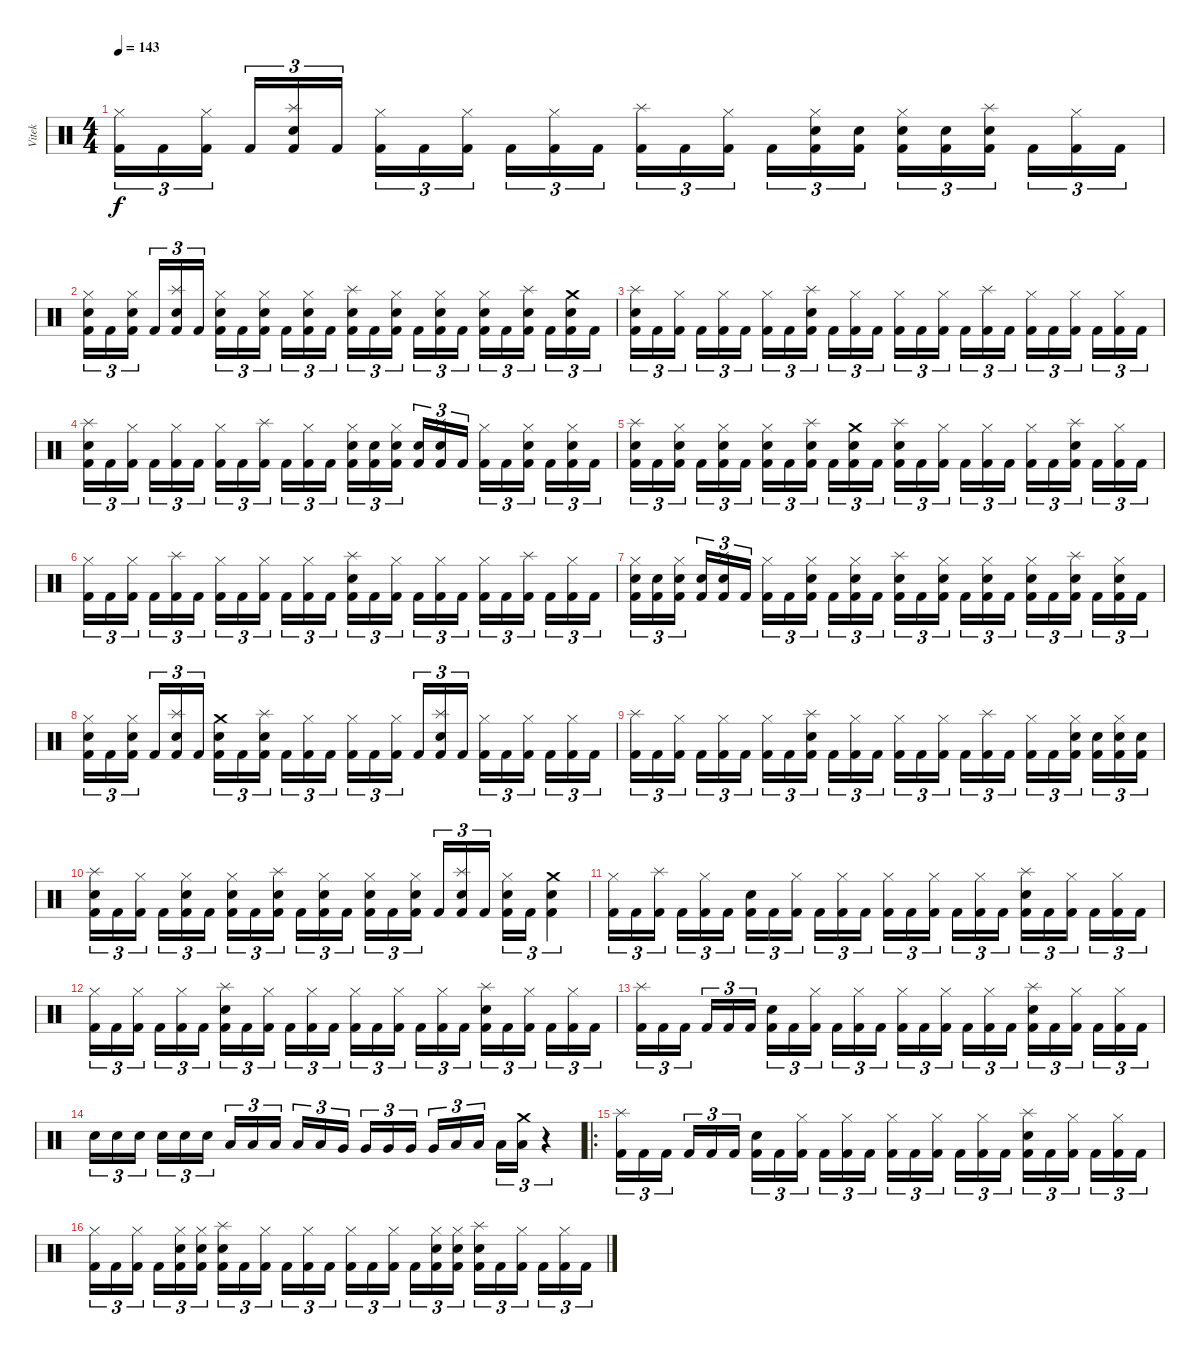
\track ("Vitek" "Vitek") {instrument percussion}
\staff {score}
\articulation defaults
\ts (4 4)
\tempo 143
\clef neutral
\ks c
("Hi-Hat (closed)" "Kick (hit) 2").16{tu (3 2) dy f} "Kick (hit) 2".16{tu (3 2)} ("Hi-Hat (closed)" "Kick (hit) 2").16{tu (3 2) beam splitsecondary} "Kick (hit) 2".16{tu (3 2)} ("Splash (hit)" "Electric Snare (hit)" "Kick (hit) 2").16{tu (3 2)} "Kick (hit) 2".16{tu (3 2)} ("Hi-Hat (closed)" "Kick (hit) 2").16{tu (3 2)} "Kick (hit) 2".16{tu (3 2)} ("Hi-Hat (closed)" "Kick (hit) 2").16{tu (3 2) beam splitsecondary} "Kick (hit) 2".16{tu (3 2)} ("Hi-Hat (closed)" "Kick (hit) 2").16{tu (3 2)} "Kick (hit) 2".16{tu (3 2)} ("Splash (hit)" "Kick (hit) 2").16{tu (3 2)} "Kick (hit) 2".16{tu (3 2)} ("Hi-Hat (closed)" "Kick (hit) 2").16{tu (3 2) beam splitsecondary} "Kick (hit) 2".16{tu (3 2)} ("Hi-Hat (closed)" "Electric Snare (hit)" "Kick (hit) 2").16{tu (3 2)} ("Electric Snare (hit)" "Kick (hit) 2").16{tu (3 2)} ("Hi-Hat (closed)" "Electric Snare (hit)" "Kick (hit) 2").16{tu (3 2)} ("Electric Snare (hit)" "Kick (hit) 2").16{tu (3 2)} ("Splash (hit)" "Electric Snare (hit)" "Kick (hit) 2").16{tu (3 2) beam splitsecondary} "Kick (hit) 2".16{tu (3 2)} ("Hi-Hat (closed)" "Kick (hit) 2").16{tu (3 2)} "Kick (hit) 2".16{tu (3 2)} |
("Hi-Hat (closed)" "Electric Snare (hit)" "Kick (hit) 2").16{tu (3 2)} "Kick (hit) 2".16{tu (3 2)} ("Hi-Hat (closed)" "Electric Snare (hit)" "Kick (hit) 2").16{tu (3 2) beam splitsecondary} "Kick (hit) 2".16{tu (3 2)} ("Splash (hit)" "Electric Snare (hit)" "Kick (hit) 2").16{tu (3 2)} "Kick (hit) 2".16{tu (3 2)} ("Hi-Hat (closed)" "Electric Snare (hit)" "Kick (hit) 2").16{tu (3 2)} "Kick (hit) 2".16{tu (3 2)} ("Hi-Hat (closed)" "Electric Snare (hit)" "Kick (hit) 2").16{tu (3 2) beam splitsecondary} "Kick (hit) 2".16{tu (3 2)} ("Hi-Hat (closed)" "Electric Snare (hit)" "Kick (hit) 2").16{tu (3 2)} "Kick (hit) 2".16{tu (3 2)} ("Splash (hit)" "Electric Snare (hit)" "Kick (hit) 2").16{tu (3 2)} "Kick (hit) 2".16{tu (3 2)} ("Hi-Hat (closed)" "Electric Snare (hit)" "Kick (hit) 2").16{tu (3 2) beam splitsecondary} "Kick (hit) 2".16{tu (3 2)} ("Hi-Hat (closed)" "Electric Snare (hit)" "Kick (hit) 2").16{tu (3 2)} "Kick (hit) 2".16{tu (3 2)} ("Hi-Hat (closed)" "Electric Snare (hit)" "Kick (hit) 2").16{tu (3 2)} "Kick (hit) 2".16{tu (3 2)} ("Splash (hit)" "Electric Snare (hit)" "Kick (hit) 2").16{tu (3 2) beam splitsecondary} "Kick (hit) 2".16{tu (3 2)} ("Crash medium (hit)" "Electric Snare (hit)" "Kick (hit) 2").16{tu (3 2)} "Kick (hit) 2".16{tu (3 2)} |
("Splash (hit)" "Electric Snare (hit)" "Kick (hit) 2").16{tu (3 2)} "Kick (hit) 2".16{tu (3 2)} ("Hi-Hat (closed)" "Kick (hit) 2").16{tu (3 2) beam splitsecondary} "Kick (hit) 2".16{tu (3 2)} ("Hi-Hat (closed)" "Kick (hit) 2").16{tu (3 2)} "Kick (hit) 2".16{tu (3 2)} ("Hi-Hat (closed)" "Kick (hit) 2").16{tu (3 2)} "Kick (hit) 2".16{tu (3 2)} ("Splash (hit)" "Electric Snare (hit)" "Kick (hit) 2").16{tu (3 2) beam splitsecondary} "Kick (hit) 2".16{tu (3 2)} ("Hi-Hat (closed)" "Kick (hit) 2").16{tu (3 2)} "Kick (hit) 2".16{tu (3 2)} ("Hi-Hat (closed)" "Kick (hit) 2").16{tu (3 2)} "Kick (hit) 2".16{tu (3 2)} ("Hi-Hat (closed)" "Kick (hit) 2").16{tu (3 2) beam splitsecondary} "Kick (hit) 2".16{tu (3 2)} ("Splash (hit)" "Kick (hit) 2").16{tu (3 2)} "Kick (hit) 2".16{tu (3 2)} ("Hi-Hat (closed)" "Kick (hit) 2").16{tu (3 2)} "Kick (hit) 2".16{tu (3 2)} ("Hi-Hat (closed)" "Kick (hit) 2").16{tu (3 2) beam splitsecondary} "Kick (hit) 2".16{tu (3 2)} ("Hi-Hat (closed)" "Kick (hit) 2").16{tu (3 2)} "Kick (hit) 2".16{tu (3 2)} |
("Splash (hit)" "Electric Snare (hit)" "Kick (hit) 2").16{tu (3 2)} "Kick (hit) 2".16{tu (3 2)} ("Hi-Hat (closed)" "Kick (hit) 2").16{tu (3 2) beam splitsecondary} "Kick (hit) 2".16{tu (3 2)} ("Hi-Hat (closed)" "Kick (hit) 2").16{tu (3 2)} "Kick (hit) 2".16{tu (3 2)} ("Hi-Hat (closed)" "Kick (hit) 2").16{tu (3 2)} "Kick (hit) 2".16{tu (3 2)} ("Splash (hit)" "Kick (hit) 2").16{tu (3 2) beam splitsecondary} "Kick (hit) 2".16{tu (3 2)} ("Hi-Hat (closed)" "Kick (hit) 2").16{tu (3 2)} "Kick (hit) 2".16{tu (3 2)} ("Hi-Hat (closed)" "Electric Snare (hit)" "Kick (hit) 2").16{tu (3 2)} ("Electric Snare (hit)" "Kick (hit) 2").16{tu (3 2)} ("Hi-Hat (closed)" "Electric Snare (hit)" "Kick (hit) 2").16{tu (3 2) beam splitsecondary} ("Electric Snare (hit)" "Kick (hit) 2").16{tu (3 2)} ("Splash (hit)" "Electric Snare (hit)" "Kick (hit) 2").16{tu (3 2)} "Kick (hit) 2".16{tu (3 2)} ("Hi-Hat (closed)" "Kick (hit) 2").16{tu (3 2)} "Kick (hit) 2".16{tu (3 2)} ("Hi-Hat (closed)" "Electric Snare (hit)" "Kick (hit) 2").16{tu (3 2) beam splitsecondary} "Kick (hit) 2".16{tu (3 2)} ("Hi-Hat (closed)" "Electric Snare (hit)" "Kick (hit) 2").16{tu (3 2)} "Kick (hit) 2".16{tu (3 2)} |
("Splash (hit)" "Electric Snare (hit)" "Kick (hit) 2").16{tu (3 2)} "Kick (hit) 2".16{tu (3 2)} ("Hi-Hat (closed)" "Electric Snare (hit)" "Kick (hit) 2").16{tu (3 2) beam splitsecondary} "Kick (hit) 2".16{tu (3 2)} ("Hi-Hat (closed)" "Electric Snare (hit)" "Kick (hit) 2").16{tu (3 2)} "Kick (hit) 2".16{tu (3 2)} ("Hi-Hat (closed)" "Electric Snare (hit)" "Kick (hit) 2").16{tu (3 2)} "Kick (hit) 2".16{tu (3 2)} ("Splash (hit)" "Electric Snare (hit)" "Kick (hit) 2").16{tu (3 2) beam splitsecondary} "Kick (hit) 2".16{tu (3 2)} ("Crash medium (hit)" "Electric Snare (hit)" "Kick (hit) 2").16{tu (3 2)} "Kick (hit) 2".16{tu (3 2)} ("Splash (hit)" "Electric Snare (hit)" "Kick (hit) 2").16{tu (3 2)} "Kick (hit) 2".16{tu (3 2)} ("Hi-Hat (closed)" "Kick (hit) 2").16{tu (3 2) beam splitsecondary} "Kick (hit) 2".16{tu (3 2)} ("Hi-Hat (closed)" "Kick (hit) 2").16{tu (3 2)} "Kick (hit) 2".16{tu (3 2)} ("Hi-Hat (closed)" "Kick (hit) 2").16{tu (3 2)} "Kick (hit) 2".16{tu (3 2)} ("Splash (hit)" "Electric Snare (hit)" "Kick (hit) 2").16{tu (3 2) beam splitsecondary} "Kick (hit) 2".16{tu (3 2)} ("Hi-Hat (closed)" "Kick (hit) 2").16{tu (3 2)} "Kick (hit) 2".16{tu (3 2)} |
("Hi-Hat (closed)" "Kick (hit) 2").16{tu (3 2)} "Kick (hit) 2".16{tu (3 2)} ("Hi-Hat (closed)" "Kick (hit) 2").16{tu (3 2) beam splitsecondary} "Kick (hit) 2".16{tu (3 2)} ("Splash (hit)" "Kick (hit) 2").16{tu (3 2)} "Kick (hit) 2".16{tu (3 2)} ("Hi-Hat (closed)" "Kick (hit) 2").16{tu (3 2)} "Kick (hit) 2".16{tu (3 2)} ("Hi-Hat (closed)" "Kick (hit) 2").16{tu (3 2) beam splitsecondary} "Kick (hit) 2".16{tu (3 2)} ("Hi-Hat (closed)" "Kick (hit) 2").16{tu (3 2)} "Kick (hit) 2".16{tu (3 2)} ("Splash (hit)" "Electric Snare (hit)" "Kick (hit) 2").16{tu (3 2)} "Kick (hit) 2".16{tu (3 2)} ("Hi-Hat (closed)" "Kick (hit) 2").16{tu (3 2) beam splitsecondary} "Kick (hit) 2".16{tu (3 2)} ("Hi-Hat (closed)" "Kick (hit) 2").16{tu (3 2)} "Kick (hit) 2".16{tu (3 2)} ("Hi-Hat (closed)" "Kick (hit) 2").16{tu (3 2)} "Kick (hit) 2".16{tu (3 2)} ("Splash (hit)" "Kick (hit) 2").16{tu (3 2) beam splitsecondary} "Kick (hit) 2".16{tu (3 2)} ("Hi-Hat (closed)" "Kick (hit) 2").16{tu (3 2)} "Kick (hit) 2".16{tu (3 2)} |
("Hi-Hat (closed)" "Electric Snare (hit)" "Kick (hit) 2").16{tu (3 2)} ("Electric Snare (hit)" "Kick (hit) 2").16{tu (3 2)} ("Hi-Hat (closed)" "Electric Snare (hit)" "Kick (hit) 2").16{tu (3 2) beam splitsecondary} ("Electric Snare (hit)" "Kick (hit) 2").16{tu (3 2)} ("Splash (hit)" "Electric Snare (hit)" "Kick (hit) 2").16{tu (3 2)} "Kick (hit) 2".16{tu (3 2)} ("Hi-Hat (closed)" "Kick (hit) 2").16{tu (3 2)} "Kick (hit) 2".16{tu (3 2)} ("Hi-Hat (closed)" "Electric Snare (hit)" "Kick (hit) 2").16{tu (3 2) beam splitsecondary} "Kick (hit) 2".16{tu (3 2)} ("Hi-Hat (closed)" "Electric Snare (hit)" "Kick (hit) 2").16{tu (3 2)} "Kick (hit) 2".16{tu (3 2)} ("Splash (hit)" "Electric Snare (hit)" "Kick (hit) 2").16{tu (3 2)} "Kick (hit) 2".16{tu (3 2)} ("Hi-Hat (closed)" "Electric Snare (hit)" "Kick (hit) 2").16{tu (3 2) beam splitsecondary} "Kick (hit) 2".16{tu (3 2)} ("Hi-Hat (closed)" "Electric Snare (hit)" "Kick (hit) 2").16{tu (3 2)} "Kick (hit) 2".16{tu (3 2)} ("Hi-Hat (closed)" "Electric Snare (hit)" "Kick (hit) 2").16{tu (3 2)} "Kick (hit) 2".16{tu (3 2)} ("Splash (hit)" "Electric Snare (hit)" "Kick (hit) 2").16{tu (3 2) beam splitsecondary} "Kick (hit) 2".16{tu (3 2)} ("Hi-Hat (closed)" "Electric Snare (hit)" "Kick (hit) 2").16{tu (3 2)} "Kick (hit) 2".16{tu (3 2)} |
("Hi-Hat (closed)" "Electric Snare (hit)" "Kick (hit) 2").16{tu (3 2)} "Kick (hit) 2".16{tu (3 2)} ("Hi-Hat (closed)" "Electric Snare (hit)" "Kick (hit) 2").16{tu (3 2) beam splitsecondary} "Kick (hit) 2".16{tu (3 2)} ("Splash (hit)" "Electric Snare (hit)" "Kick (hit) 2").16{tu (3 2)} "Kick (hit) 2".16{tu (3 2)} ("Crash medium (hit)" "Electric Snare (hit)" "Kick (hit) 2").16{tu (3 2)} "Kick (hit) 2".16{tu (3 2)} ("Splash (hit)" "Electric Snare (hit)" "Kick (hit) 2").16{tu (3 2) beam splitsecondary} "Kick (hit) 2".16{tu (3 2)} ("Hi-Hat (closed)" "Kick (hit) 2").16{tu (3 2)} "Kick (hit) 2".16{tu (3 2)} ("Hi-Hat (closed)" "Kick (hit) 2").16{tu (3 2)} "Kick (hit) 2".16{tu (3 2)} ("Hi-Hat (closed)" "Kick (hit) 2").16{tu (3 2) beam splitsecondary} "Kick (hit) 2".16{tu (3 2)} ("Splash (hit)" "Electric Snare (hit)" "Kick (hit) 2").16{tu (3 2)} "Kick (hit) 2".16{tu (3 2)} ("Hi-Hat (closed)" "Kick (hit) 2").16{tu (3 2)} "Kick (hit) 2".16{tu (3 2)} ("Hi-Hat (closed)" "Kick (hit) 2").16{tu (3 2) beam splitsecondary} "Kick (hit) 2".16{tu (3 2)} ("Hi-Hat (closed)" "Kick (hit) 2").16{tu (3 2)} "Kick (hit) 2".16{tu (3 2)} |
("Splash (hit)" "Kick (hit) 2").16{tu (3 2)} "Kick (hit) 2".16{tu (3 2)} ("Hi-Hat (closed)" "Kick (hit) 2").16{tu (3 2) beam splitsecondary} "Kick (hit) 2".16{tu (3 2)} ("Hi-Hat (closed)" "Kick (hit) 2").16{tu (3 2)} "Kick (hit) 2".16{tu (3 2)} ("Hi-Hat (closed)" "Kick (hit) 2").16{tu (3 2)} "Kick (hit) 2".16{tu (3 2)} ("Splash (hit)" "Electric Snare (hit)" "Kick (hit) 2").16{tu (3 2) beam splitsecondary} "Kick (hit) 2".16{tu (3 2)} ("Hi-Hat (closed)" "Kick (hit) 2").16{tu (3 2)} "Kick (hit) 2".16{tu (3 2)} ("Hi-Hat (closed)" "Kick (hit) 2").16{tu (3 2)} "Kick (hit) 2".16{tu (3 2)} ("Hi-Hat (closed)" "Kick (hit) 2").16{tu (3 2) beam splitsecondary} "Kick (hit) 2".16{tu (3 2)} ("Splash (hit)" "Kick (hit) 2").16{tu (3 2)} "Kick (hit) 2".16{tu (3 2)} ("Hi-Hat (closed)" "Kick (hit) 2").16{tu (3 2)} "Kick (hit) 2".16{tu (3 2)} ("Hi-Hat (closed)" "Electric Snare (hit)" "Kick (hit) 2").16{tu (3 2) beam splitsecondary} ("Electric Snare (hit)" "Kick (hit) 2").16{tu (3 2)} ("Hi-Hat (closed)" "Electric Snare (hit)" "Kick (hit) 2").16{tu (3 2)} ("Electric Snare (hit)" "Kick (hit) 2").16{tu (3 2)} |
("Splash (hit)" "Electric Snare (hit)" "Kick (hit) 2").16{tu (3 2)} "Kick (hit) 2".16{tu (3 2)} ("Hi-Hat (closed)" "Kick (hit) 2").16{tu (3 2) beam splitsecondary} "Kick (hit) 2".16{tu (3 2)} ("Hi-Hat (closed)" "Electric Snare (hit)" "Kick (hit) 2").16{tu (3 2)} "Kick (hit) 2".16{tu (3 2)} ("Hi-Hat (closed)" "Electric Snare (hit)" "Kick (hit) 2").16{tu (3 2)} "Kick (hit) 2".16{tu (3 2)} ("Splash (hit)" "Electric Snare (hit)" "Kick (hit) 2").16{tu (3 2) beam splitsecondary} "Kick (hit) 2".16{tu (3 2)} ("Hi-Hat (closed)" "Electric Snare (hit)" "Kick (hit) 2").16{tu (3 2)} "Kick (hit) 2".16{tu (3 2)} ("Hi-Hat (closed)" "Electric Snare (hit)" "Kick (hit) 2").16{tu (3 2)} "Kick (hit) 2".16{tu (3 2)} ("Hi-Hat (closed)" "Electric Snare (hit)" "Kick (hit) 2").16{tu (3 2) beam splitsecondary} "Kick (hit) 2".16{tu (3 2)} ("Splash (hit)" "Electric Snare (hit)" "Kick (hit) 2").16{tu (3 2)} "Kick (hit) 2".16{tu (3 2)} ("Hi-Hat (closed)" "Electric Snare (hit)" "Kick (hit) 2").16{tu (3 2)} "Kick (hit) 2".16{tu (3 2)} ("Crash medium (hit)" "Electric Snare (hit)" "Kick (hit) 2").4{tu (3 2)} |
("Hi-Hat (closed)" "Kick (hit) 2").16{tu (3 2)} "Kick (hit) 2".16{tu (3 2)} ("Splash (hit)" "Kick (hit) 2").16{tu (3 2) beam splitsecondary} "Kick (hit) 2".16{tu (3 2)} ("Hi-Hat (closed)" "Kick (hit) 2").16{tu (3 2)} "Kick (hit) 2".16{tu (3 2)} ("Electric Snare (hit)" "Kick (hit) 2").16{tu (3 2)} "Kick (hit) 2".16{tu (3 2)} ("Hi-Hat (closed)" "Kick (hit) 2").16{tu (3 2) beam splitsecondary} "Kick (hit) 2".16{tu (3 2)} ("Hi-Hat (closed)" "Kick (hit) 2").16{tu (3 2)} "Kick (hit) 2".16{tu (3 2)} ("Hi-Hat (closed)" "Kick (hit) 2").16{tu (3 2)} "Kick (hit) 2".16{tu (3 2)} ("Hi-Hat (closed)" "Kick (hit) 2").16{tu (3 2) beam splitsecondary} "Kick (hit) 2".16{tu (3 2)} ("Hi-Hat (closed)" "Kick (hit) 2").16{tu (3 2)} "Kick (hit) 2".16{tu (3 2)} ("Splash (hit)" "Electric Snare (hit)" "Kick (hit) 2").16{tu (3 2)} "Kick (hit) 2".16{tu (3 2)} ("Hi-Hat (closed)" "Kick (hit) 2").16{tu (3 2) beam splitsecondary} "Kick (hit) 2".16{tu (3 2)} ("Hi-Hat (closed)" "Kick (hit) 2").16{tu (3 2)} "Kick (hit) 2".16{tu (3 2)} |
("Hi-Hat (closed)" "Kick (hit) 2").16{tu (3 2)} "Kick (hit) 2".16{tu (3 2)} ("Hi-Hat (closed)" "Kick (hit) 2").16{tu (3 2) beam splitsecondary} "Kick (hit) 2".16{tu (3 2)} ("Hi-Hat (closed)" "Kick (hit) 2").16{tu (3 2)} "Kick (hit) 2".16{tu (3 2)} ("Splash (hit)" "Electric Snare (hit)" "Kick (hit) 2").16{tu (3 2)} "Kick (hit) 2".16{tu (3 2)} ("Hi-Hat (closed)" "Kick (hit) 2").16{tu (3 2) beam splitsecondary} "Kick (hit) 2".16{tu (3 2)} ("Hi-Hat (closed)" "Kick (hit) 2").16{tu (3 2)} "Kick (hit) 2".16{tu (3 2)} ("Hi-Hat (closed)" "Kick (hit) 2").16{tu (3 2)} "Kick (hit) 2".16{tu (3 2)} ("Hi-Hat (closed)" "Kick (hit) 2").16{tu (3 2) beam splitsecondary} "Kick (hit) 2".16{tu (3 2)} ("Hi-Hat (closed)" "Kick (hit) 2").16{tu (3 2)} "Kick (hit) 2".16{tu (3 2)} ("Splash (hit)" "Electric Snare (hit)" "Kick (hit) 2").16{tu (3 2)} "Kick (hit) 2".16{tu (3 2)} ("Hi-Hat (closed)" "Kick (hit) 2").16{tu (3 2) beam splitsecondary} "Kick (hit) 2".16{tu (3 2)} ("Hi-Hat (closed)" "Kick (hit) 2").16{tu (3 2)} "Kick (hit) 2".16{tu (3 2)} |
("Splash (hit)" "Kick (hit) 2").16{tu (3 2)} "Kick (hit) 2".16{tu (3 2)} "Kick (hit) 2".16{tu (3 2) beam splitsecondary} "Kick (hit) 2".16{tu (3 2)} "Kick (hit) 2".16{tu (3 2)} "Kick (hit) 2".16{tu (3 2)} ("Electric Snare (hit)" "Kick (hit) 2").16{tu (3 2)} "Kick (hit) 2".16{tu (3 2)} ("Hi-Hat (closed)" "Kick (hit) 2").16{tu (3 2) beam splitsecondary} "Kick (hit) 2".16{tu (3 2)} ("Hi-Hat (closed)" "Kick (hit) 2").16{tu (3 2)} "Kick (hit) 2".16{tu (3 2)} ("Hi-Hat (closed)" "Kick (hit) 2").16{tu (3 2)} "Kick (hit) 2".16{tu (3 2)} ("Hi-Hat (closed)" "Kick (hit) 2").16{tu (3 2) beam splitsecondary} "Kick (hit) 2".16{tu (3 2)} ("Hi-Hat (closed)" "Kick (hit) 2").16{tu (3 2)} "Kick (hit) 2".16{tu (3 2)} ("Splash (hit)" "Electric Snare (hit)" "Kick (hit) 2").16{tu (3 2)} "Kick (hit) 2".16{tu (3 2)} ("Hi-Hat (closed)" "Kick (hit) 2").16{tu (3 2) beam splitsecondary} "Kick (hit) 2".16{tu (3 2)} ("Hi-Hat (closed)" "Kick (hit) 2").16{tu (3 2)} "Kick (hit) 2".16{tu (3 2)} |
"Electric Snare (hit)".16{tu (3 2)} "Electric Snare (hit)".16{tu (3 2)} "Electric Snare (hit)".16{tu (3 2) beam splitsecondary} "Electric Snare (hit)".16{tu (3 2)} "Electric Snare (hit)".16{tu (3 2)} "Electric Snare (hit)".16{tu (3 2)} "Low Tom (hit)".16{tu (3 2)} "Low Tom (hit)".16{tu (3 2)} "Low Tom (hit)".16{tu (3 2) beam splitsecondary} "Low Tom (hit)".16{tu (3 2)} "Low Tom (hit)".16{tu (3 2)} "Very Low Tom (hit)".16{tu (3 2)} "Very Low Tom (hit)".16{tu (3 2)} "Very Low Tom (hit)".16{tu (3 2)} "Very Low Tom (hit)".16{tu (3 2) beam splitsecondary} "Very Low Tom (hit)".16{tu (3 2)} "Low Floor Tom (hit)".16{tu (3 2)} "Low Floor Tom (hit)".16{tu (3 2)} "Low Floor Tom (hit)".16{tu (3 2)} ("Crash medium (hit)" "Low Floor Tom (hit)").16{tu (3 2)} r.4{tu (3 2)} |
\ro
("Splash (hit)" "Kick (hit) 2").16{tu (3 2)} "Kick (hit) 2".16{tu (3 2)} "Kick (hit) 2".16{tu (3 2) beam splitsecondary} "Kick (hit) 2".16{tu (3 2)} "Kick (hit) 2".16{tu (3 2)} "Kick (hit) 2".16{tu (3 2)} ("Electric Snare (hit)" "Kick (hit) 2").16{tu (3 2)} "Kick (hit) 2".16{tu (3 2)} ("Hi-Hat (closed)" "Kick (hit) 2").16{tu (3 2) beam splitsecondary} "Kick (hit) 2".16{tu (3 2)} ("Hi-Hat (closed)" "Kick (hit) 2").16{tu (3 2)} "Kick (hit) 2".16{tu (3 2)} ("Hi-Hat (closed)" "Kick (hit) 2").16{tu (3 2)} "Kick (hit) 2".16{tu (3 2)} ("Hi-Hat (closed)" "Kick (hit) 2").16{tu (3 2) beam splitsecondary} "Kick (hit) 2".16{tu (3 2)} ("Hi-Hat (closed)" "Kick (hit) 2").16{tu (3 2)} "Kick (hit) 2".16{tu (3 2)} ("Splash (hit)" "Electric Snare (hit)" "Kick (hit) 2").16{tu (3 2)} "Kick (hit) 2".16{tu (3 2)} ("Hi-Hat (closed)" "Kick (hit) 2").16{tu (3 2) beam splitsecondary} "Kick (hit) 2".16{tu (3 2)} ("Hi-Hat (closed)" "Kick (hit) 2").16{tu (3 2)} "Kick (hit) 2".16{tu (3 2)} |
("Hi-Hat (closed)" "Kick (hit) 2").16{tu (3 2)} "Kick (hit) 2".16{tu (3 2)} ("Hi-Hat (closed)" "Kick (hit) 2").16{tu (3 2) beam splitsecondary} "Kick (hit) 2".16{tu (3 2)} ("Hi-Hat (closed)" "Electric Snare (hit)" "Kick (hit) 2").16{tu (3 2)} ("Hi-Hat (closed)" "Electric Snare (hit)" "Kick (hit) 2").16{tu (3 2)} ("Splash (hit)" "Electric Snare (hit)" "Kick (hit) 2").16{tu (3 2)} "Kick (hit) 2".16{tu (3 2)} ("Hi-Hat (closed)" "Kick (hit) 2").16{tu (3 2) beam splitsecondary} "Kick (hit) 2".16{tu (3 2)} ("Hi-Hat (closed)" "Kick (hit) 2").16{tu (3 2)} "Kick (hit) 2".16{tu (3 2)} ("Hi-Hat (closed)" "Kick (hit) 2").16{tu (3 2)} "Kick (hit) 2".16{tu (3 2)} ("Hi-Hat (closed)" "Kick (hit) 2").16{tu (3 2) beam splitsecondary} "Kick (hit) 2".16{tu (3 2)} ("Hi-Hat (closed)" "Electric Snare (hit)" "Kick (hit) 2").16{tu (3 2)} ("Hi-Hat (closed)" "Electric Snare (hit)" "Kick (hit) 2").16{tu (3 2)} ("Splash (hit)" "Electric Snare (hit)" "Kick (hit) 2").16{tu (3 2)} "Kick (hit) 2".16{tu (3 2)} ("Hi-Hat (closed)" "Kick (hit) 2").16{tu (3 2) beam splitsecondary} "Kick (hit) 2".16{tu (3 2)} ("Hi-Hat (closed)" "Kick (hit) 2").16{tu (3 2)} "Kick (hit) 2".16{tu (3 2)}
